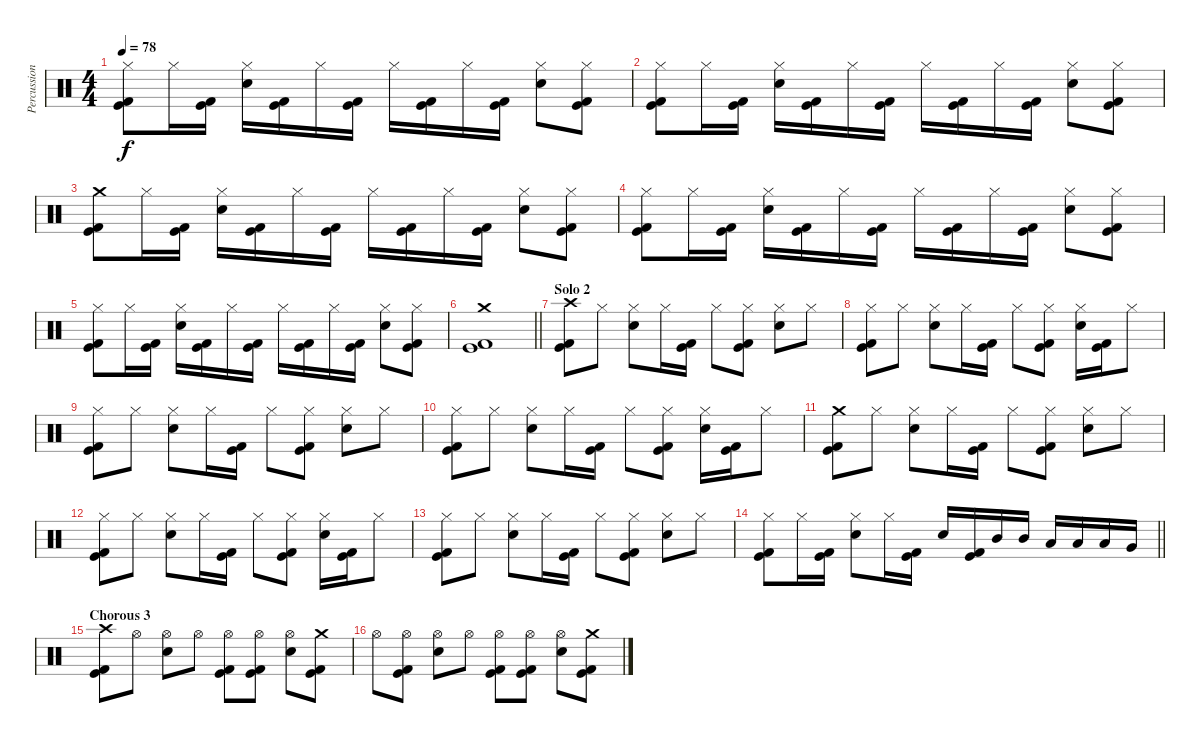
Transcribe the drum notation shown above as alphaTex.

\track ("Percussion" "Percussion") {instrument percussion}
\staff {score}
\articulation defaults
\ts (4 4)
\tempo 78
\clef neutral
\ks c
("Hi-Hat (closed)" "Kick (hit)" "Kick (hit) 2").8{dy f} "Hi-Hat (closed)".16 ("Kick (hit)" "Kick (hit) 2").16 ("Hi-Hat (closed)" "Electric Snare (hit)").16 ("Kick (hit)" "Kick (hit) 2").16 "Hi-Hat (closed)".16 ("Kick (hit)" "Kick (hit) 2").16 "Hi-Hat (closed)".16 ("Kick (hit)" "Kick (hit) 2").16 "Hi-Hat (closed)".16 ("Kick (hit)" "Kick (hit) 2").16 ("Hi-Hat (closed)" "Electric Snare (hit)").8 ("Hi-Hat (closed)" "Kick (hit)" "Kick (hit) 2").8 |
("Hi-Hat (closed)" "Kick (hit)" "Kick (hit) 2").8 "Hi-Hat (closed)".16 ("Kick (hit)" "Kick (hit) 2").16 ("Hi-Hat (closed)" "Electric Snare (hit)").16 ("Kick (hit)" "Kick (hit) 2").16 "Hi-Hat (closed)".16 ("Kick (hit)" "Kick (hit) 2").16 "Hi-Hat (closed)".16 ("Kick (hit)" "Kick (hit) 2").16 "Hi-Hat (closed)".16 ("Kick (hit)" "Kick (hit) 2").16 ("Hi-Hat (closed)" "Electric Snare (hit)").8 ("Hi-Hat (closed)" "Kick (hit)" "Kick (hit) 2").8 |
("Crash medium (hit)" "Kick (hit)" "Kick (hit) 2").8 "Hi-Hat (closed)".16 ("Kick (hit)" "Kick (hit) 2").16 ("Hi-Hat (closed)" "Electric Snare (hit)").16 ("Kick (hit)" "Kick (hit) 2").16 "Hi-Hat (closed)".16 ("Kick (hit)" "Kick (hit) 2").16 "Hi-Hat (closed)".16 ("Kick (hit)" "Kick (hit) 2").16 "Hi-Hat (closed)".16 ("Kick (hit)" "Kick (hit) 2").16 ("Hi-Hat (closed)" "Electric Snare (hit)").8 ("Hi-Hat (closed)" "Kick (hit)" "Kick (hit) 2").8 |
("Hi-Hat (closed)" "Kick (hit)" "Kick (hit) 2").8 "Hi-Hat (closed)".16 ("Kick (hit)" "Kick (hit) 2").16 ("Hi-Hat (closed)" "Electric Snare (hit)").16 ("Kick (hit)" "Kick (hit) 2").16 "Hi-Hat (closed)".16 ("Kick (hit)" "Kick (hit) 2").16 "Hi-Hat (closed)".16 ("Kick (hit)" "Kick (hit) 2").16 "Hi-Hat (closed)".16 ("Kick (hit)" "Kick (hit) 2").16 ("Hi-Hat (closed)" "Electric Snare (hit)").8 ("Hi-Hat (closed)" "Kick (hit)" "Kick (hit) 2").8 |
("Hi-Hat (closed)" "Kick (hit)" "Kick (hit) 2").8 "Hi-Hat (closed)".16 ("Kick (hit)" "Kick (hit) 2").16 ("Hi-Hat (closed)" "Electric Snare (hit)").16 ("Kick (hit)" "Kick (hit) 2").16 "Hi-Hat (closed)".16 ("Kick (hit)" "Kick (hit) 2").16 "Hi-Hat (closed)".16 ("Kick (hit)" "Kick (hit) 2").16 "Hi-Hat (closed)".16 ("Kick (hit)" "Kick (hit) 2").16 ("Hi-Hat (closed)" "Electric Snare (hit)").8 ("Hi-Hat (closed)" "Kick (hit)" "Kick (hit) 2").8 |
\barLineRight lightlight
("Crash medium (hit)" "Kick (hit)" "Kick (hit) 2").1 |
\section ("" "Solo 2")
("Crash high (hit)" "Kick (hit)" "Kick (hit) 2").8 "Hi-Hat (closed)".8 ("Hi-Hat (closed)" "Electric Snare (hit)").8 "Hi-Hat (closed)".16 ("Kick (hit)" "Kick (hit) 2").16 "Hi-Hat (closed)".8 ("Hi-Hat (closed)" "Kick (hit)" "Kick (hit) 2").8 ("Hi-Hat (closed)" "Electric Snare (hit)").8 "Hi-Hat (closed)".8 |
("Hi-Hat (closed)" "Kick (hit)" "Kick (hit) 2").8 "Hi-Hat (closed)".8 ("Hi-Hat (closed)" "Electric Snare (hit)").8 "Hi-Hat (closed)".16 ("Kick (hit)" "Kick (hit) 2").16 "Hi-Hat (closed)".8 ("Hi-Hat (closed)" "Kick (hit)" "Kick (hit) 2").8 ("Hi-Hat (closed)" "Electric Snare (hit)").16 ("Kick (hit)" "Kick (hit) 2").16 "Hi-Hat (closed)".8 |
("Hi-Hat (closed)" "Kick (hit)" "Kick (hit) 2").8 "Hi-Hat (closed)".8 ("Hi-Hat (closed)" "Electric Snare (hit)").8 "Hi-Hat (closed)".16 ("Kick (hit)" "Kick (hit) 2").16 "Hi-Hat (closed)".8 ("Hi-Hat (closed)" "Kick (hit)" "Kick (hit) 2").8 ("Hi-Hat (closed)" "Electric Snare (hit)").8 "Hi-Hat (closed)".8 |
("Hi-Hat (closed)" "Kick (hit)" "Kick (hit) 2").8 "Hi-Hat (closed)".8 ("Hi-Hat (closed)" "Electric Snare (hit)").8 "Hi-Hat (closed)".16 ("Kick (hit)" "Kick (hit) 2").16 "Hi-Hat (closed)".8 ("Hi-Hat (closed)" "Kick (hit)" "Kick (hit) 2").8 ("Hi-Hat (closed)" "Electric Snare (hit)").16 ("Kick (hit)" "Kick (hit) 2").16 "Hi-Hat (closed)".8 |
("Crash medium (hit)" "Kick (hit)" "Kick (hit) 2").8 "Hi-Hat (closed)".8 ("Hi-Hat (closed)" "Electric Snare (hit)").8 "Hi-Hat (closed)".16 ("Kick (hit)" "Kick (hit) 2").16 "Hi-Hat (closed)".8 ("Hi-Hat (closed)" "Kick (hit)" "Kick (hit) 2").8 ("Hi-Hat (closed)" "Electric Snare (hit)").8 "Hi-Hat (closed)".8 |
("Hi-Hat (closed)" "Kick (hit)" "Kick (hit) 2").8 "Hi-Hat (closed)".8 ("Hi-Hat (closed)" "Electric Snare (hit)").8 "Hi-Hat (closed)".16 ("Kick (hit)" "Kick (hit) 2").16 "Hi-Hat (closed)".8 ("Hi-Hat (closed)" "Kick (hit)" "Kick (hit) 2").8 ("Hi-Hat (closed)" "Electric Snare (hit)").16 ("Kick (hit)" "Kick (hit) 2").16 "Hi-Hat (closed)".8 |
("Hi-Hat (closed)" "Kick (hit)" "Kick (hit) 2").8 "Hi-Hat (closed)".8 ("Hi-Hat (closed)" "Electric Snare (hit)").8 "Hi-Hat (closed)".16 ("Kick (hit)" "Kick (hit) 2").16 "Hi-Hat (closed)".8 ("Hi-Hat (closed)" "Kick (hit)" "Kick (hit) 2").8 ("Hi-Hat (closed)" "Electric Snare (hit)").8 "Hi-Hat (closed)".8 |
\barLineRight lightlight
("Hi-Hat (closed)" "Kick (hit)" "Kick (hit) 2").8 "Hi-Hat (closed)".16 ("Kick (hit)" "Kick (hit) 2").16 ("Hi-Hat (closed)" "Electric Snare (hit)").8 "Hi-Hat (closed)".16 ("Kick (hit)" "Kick (hit) 2").16 "Electric Snare (hit)".16 ("Kick (hit)" "Kick (hit) 2").16 "Mid Tom (hit)".16 "Mid Tom (hit)".16 "Low Tom (hit)".16 "Low Tom (hit)".16 "Low Tom (hit)".16 "Very Low Tom (hit)".16 |
\section ("" "Chorous 3")
("Crash high (hit)" "Kick (hit)" "Kick (hit) 2").8 "Hi-Hat (open)".8 ("Hi-Hat (open)" "Electric Snare (hit)").8 "Hi-Hat (open)".8 ("Hi-Hat (open)" "Kick (hit)" "Kick (hit) 2").8 ("Hi-Hat (open)" "Kick (hit)" "Kick (hit) 2").8 ("Hi-Hat (open)" "Electric Snare (hit)").8 ("Crash medium (hit)" "Kick (hit)" "Kick (hit) 2").8 |
"Hi-Hat (open)".8 ("Hi-Hat (open)" "Kick (hit)" "Kick (hit) 2").8 ("Hi-Hat (open)" "Electric Snare (hit)").8 "Hi-Hat (open)".8 ("Hi-Hat (open)" "Kick (hit)" "Kick (hit) 2").8 ("Hi-Hat (open)" "Kick (hit)" "Kick (hit) 2").8 ("Hi-Hat (open)" "Electric Snare (hit)").8 ("Crash medium (hit)" "Kick (hit)" "Kick (hit) 2").8
